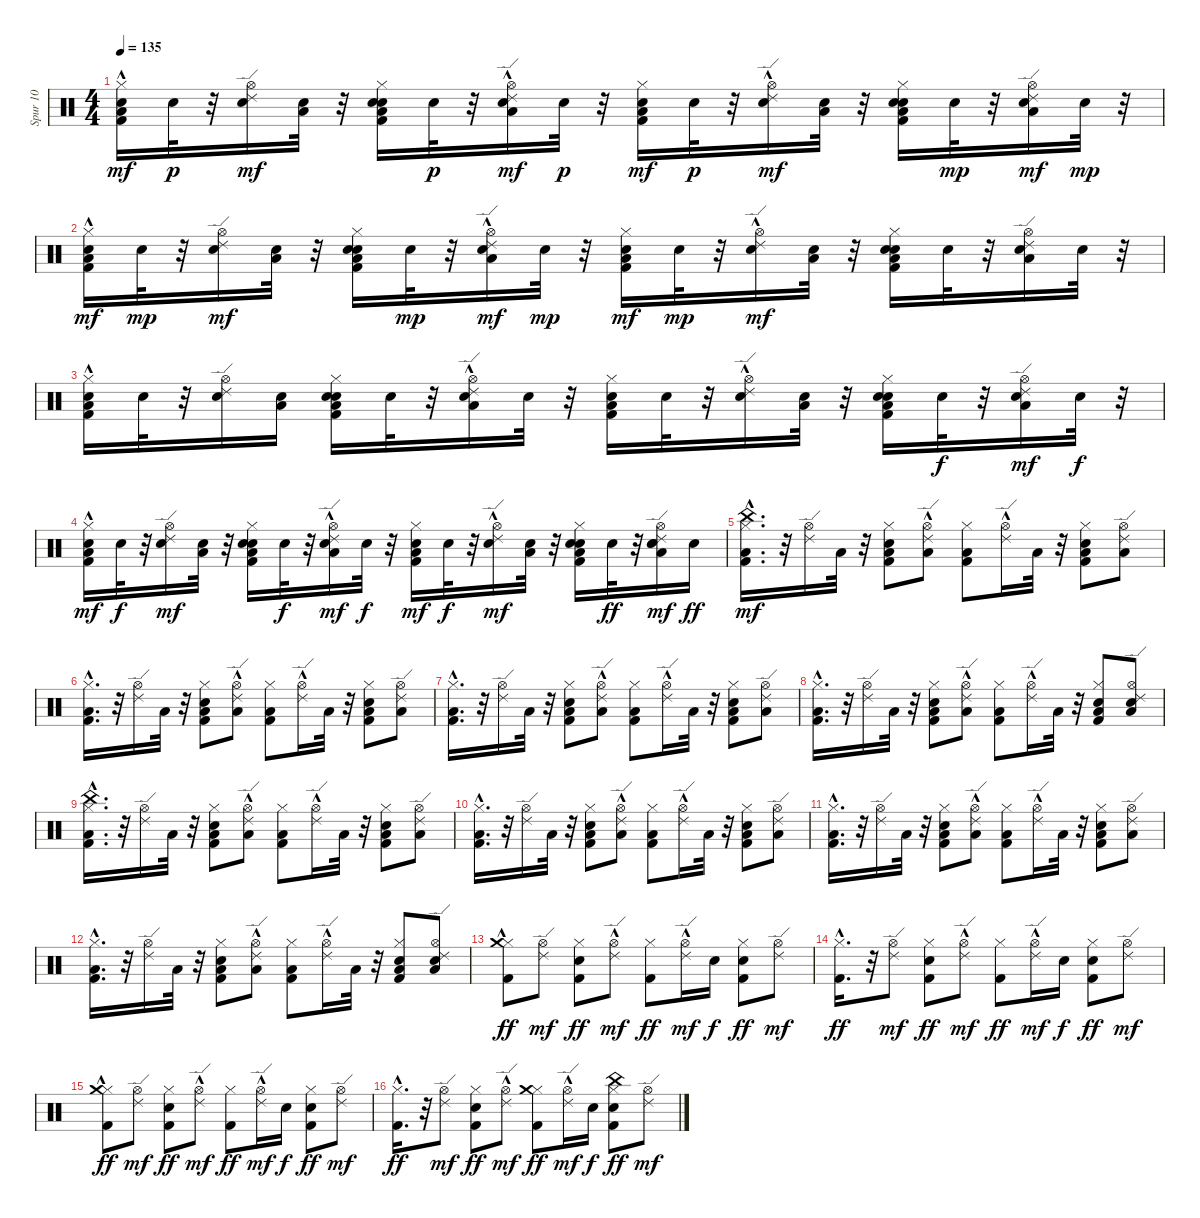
\track ("Spur 10" "Spur 10") {instrument percussion}
\staff {score}
\articulation defaults
\ts (4 4)
\tempo 135
\clef neutral
\ks c
("Snare (hit) 2" "Kick (hit) 2" "Low Tom (hit)" "Hi-Hat (closed)"{hac}).16{dy mf} "Snare (hit) 2".32{dy p} r.32 ("Snare (hit) 2" "Ride (edge) 2" "Hi-Hat (open)").16{dy mf} ("Snare (hit) 2" "Low Tom (hit)").32 r.32 ("Snare (hit) 2" "Kick (hit) 2" "Hand Clap (hit)" "Low Tom (hit)" "Hi-Hat (closed)").16 "Snare (hit) 2".32{dy p} r.32 ("Snare (hit) 2" "Low Tom (hit)" "Hi-Hat (open)" "Ride (edge) 2"{hac}).16{dy mf} "Snare (hit) 2".32{dy p} r.32 ("Snare (hit) 2" "Kick (hit) 2" "Low Tom (hit)" "Hi-Hat (closed)").16{dy mf} "Snare (hit) 2".32{dy p} r.32 ("Snare (hit) 2" "Hi-Hat (open)" "Ride (edge) 2"{hac}).16{dy mf} ("Snare (hit) 2" "Low Tom (hit)").32 r.32 ("Snare (hit) 2" "Kick (hit) 2" "Hand Clap (hit)" "Low Tom (hit)" "Hi-Hat (closed)").16 "Snare (hit) 2".32{dy mp} r.32 ("Snare (hit) 2" "Low Tom (hit)" "Hi-Hat (open)" "Ride (edge) 2").16{dy mf} "Snare (hit) 2".32{dy mp} r.32 |
("Snare (hit) 2" "Kick (hit) 2" "Low Tom (hit)" "Hi-Hat (closed)"{hac}).16{dy mf} "Snare (hit) 2".32{dy mp} r.32 ("Snare (hit) 2" "Ride (edge) 2" "Hi-Hat (open)").16{dy mf} ("Snare (hit) 2" "Low Tom (hit)").32 r.32 ("Snare (hit) 2" "Kick (hit) 2" "Hand Clap (hit)" "Low Tom (hit)" "Hi-Hat (closed)").16 "Snare (hit) 2".32{dy mp} r.32 ("Snare (hit) 2" "Low Tom (hit)" "Hi-Hat (open)" "Ride (edge) 2"{hac}).16{dy mf} "Snare (hit) 2".32{dy mp} r.32 ("Snare (hit) 2" "Kick (hit) 2" "Low Tom (hit)" "Hi-Hat (closed)").16{dy mf} "Snare (hit) 2".32{dy mp} r.32 ("Snare (hit) 2" "Hi-Hat (open)" "Ride (edge) 2"{hac}).16{dy mf} ("Snare (hit) 2" "Low Tom (hit)").32 r.32 ("Snare (hit) 2" "Kick (hit) 2" "Hand Clap (hit)" "Low Tom (hit)" "Hi-Hat (closed)").16 "Snare (hit) 2".32 r.32 ("Snare (hit) 2" "Low Tom (hit)" "Hi-Hat (open)" "Ride (edge) 2").16 "Snare (hit) 2".32 r.32 |
("Snare (hit) 2" "Kick (hit) 2" "Low Tom (hit)" "Hi-Hat (closed)"{hac}).16 "Snare (hit) 2".32 r.32 ("Snare (hit) 2" "Ride (edge) 2" "Hi-Hat (open)").16 ("Snare (hit) 2" "Low Tom (hit)").16 ("Snare (hit) 2" "Kick (hit) 2" "Hand Clap (hit)" "Low Tom (hit)" "Hi-Hat (closed)").16 "Snare (hit) 2".32 r.32 ("Snare (hit) 2" "Low Tom (hit)" "Hi-Hat (open)" "Ride (edge) 2"{hac}).16 "Snare (hit) 2".32 r.32 ("Snare (hit) 2" "Kick (hit) 2" "Low Tom (hit)" "Hi-Hat (closed)").16 "Snare (hit) 2".32 r.32 ("Snare (hit) 2" "Hi-Hat (open)" "Ride (edge) 2"{hac}).16 ("Snare (hit) 2" "Low Tom (hit)").32 r.32 ("Snare (hit) 2" "Kick (hit) 2" "Hand Clap (hit)" "Low Tom (hit)" "Hi-Hat (closed)").16 "Snare (hit) 2".32{dy f} r.32 ("Snare (hit) 2" "Low Tom (hit)" "Hi-Hat (open)" "Ride (edge) 2").16{dy mf} "Snare (hit) 2".32{dy f} r.32 |
("Snare (hit) 2" "Kick (hit) 2" "Low Tom (hit)" "Hi-Hat (closed)"{hac}).16{dy mf} "Snare (hit) 2".32{dy f} r.32 ("Snare (hit) 2" "Ride (edge) 2" "Hi-Hat (open)").16{dy mf} ("Snare (hit) 2" "Low Tom (hit)").32 r.32 ("Snare (hit) 2" "Kick (hit) 2" "Hand Clap (hit)" "Low Tom (hit)" "Hi-Hat (closed)").16 "Snare (hit) 2".32{dy f} r.32 ("Snare (hit) 2" "Low Tom (hit)" "Hi-Hat (open)" "Ride (edge) 2"{hac}).16{dy mf} "Snare (hit) 2".32{dy f} r.32 ("Snare (hit) 2" "Kick (hit) 2" "Low Tom (hit)" "Hi-Hat (closed)").16{dy mf} "Snare (hit) 2".32{dy f} r.32 ("Snare (hit) 2" "Hi-Hat (open)" "Ride (edge) 2"{hac}).16{dy mf} ("Snare (hit) 2" "Low Tom (hit)").32 r.32 ("Snare (hit) 2" "Kick (hit) 2" "Hand Clap (hit)" "Low Tom (hit)" "Hi-Hat (closed)").16 "Snare (hit) 2".32{dy ff} r.32 ("Snare (hit) 2" "Hand Clap (hit)" "Low Tom (hit)" "Hi-Hat (open)" "Ride (edge) 2").16{dy mf} "Snare (hit) 2".16{dy ff} |
("Kick (hit) 2" "Low Tom (hit)" "Hi-Hat (closed)"{hac} "China (hit)").16{d dy mf} r.32 ("Ride (edge) 2" "Hi-Hat (open)").16 "Low Tom (hit)".32 r.32 ("Kick (hit) 2" "Hand Clap (hit)" "Low Tom (hit)" "Hi-Hat (closed)").8 ("Low Tom (hit)" "Hi-Hat (open)" "Ride (edge) 2"{hac}).8 ("Kick (hit) 2" "Low Tom (hit)" "Hi-Hat (closed)").8 ("Hi-Hat (open)" "Ride (edge) 2"{hac}).16 "Low Tom (hit)".32 r.32 ("Kick (hit) 2" "Hand Clap (hit)" "Low Tom (hit)" "Hi-Hat (closed)").8 ("Low Tom (hit)" "Hi-Hat (open)" "Ride (edge) 2").8 |
("Kick (hit) 2" "Low Tom (hit)" "Hi-Hat (closed)"{hac}).16{d} r.32 ("Ride (edge) 2" "Hi-Hat (open)").16 "Low Tom (hit)".32 r.32 ("Kick (hit) 2" "Hand Clap (hit)" "Low Tom (hit)" "Hi-Hat (closed)").8 ("Low Tom (hit)" "Hi-Hat (open)" "Ride (edge) 2"{hac}).8 ("Kick (hit) 2" "Low Tom (hit)" "Hi-Hat (closed)").8 ("Hi-Hat (open)" "Ride (edge) 2"{hac}).16 "Low Tom (hit)".32 r.32 ("Kick (hit) 2" "Hand Clap (hit)" "Low Tom (hit)" "Hi-Hat (closed)").8 ("Low Tom (hit)" "Hi-Hat (open)" "Ride (edge) 2").8 |
("Kick (hit) 2" "Low Tom (hit)" "Hi-Hat (closed)"{hac}).16{d} r.32 ("Ride (edge) 2" "Hi-Hat (open)").16 "Low Tom (hit)".32 r.32 ("Kick (hit) 2" "Hand Clap (hit)" "Low Tom (hit)" "Hi-Hat (closed)").8 ("Low Tom (hit)" "Hi-Hat (open)" "Ride (edge) 2"{hac}).8 ("Kick (hit) 2" "Low Tom (hit)" "Hi-Hat (closed)").8 ("Hi-Hat (open)" "Ride (edge) 2"{hac}).16 "Low Tom (hit)".32 r.32 ("Kick (hit) 2" "Hand Clap (hit)" "Low Tom (hit)" "Hi-Hat (closed)").8 ("Low Tom (hit)" "Hi-Hat (open)" "Ride (edge) 2").8 |
("Kick (hit) 2" "Low Tom (hit)" "Hi-Hat (closed)"{hac}).16{d} r.32 ("Ride (edge) 2" "Hi-Hat (open)").16 "Low Tom (hit)".32 r.32 ("Kick (hit) 2" "Hand Clap (hit)" "Low Tom (hit)" "Hi-Hat (closed)").8 ("Low Tom (hit)" "Hi-Hat (open)" "Ride (edge) 2"{hac}).8 ("Kick (hit) 2" "Low Tom (hit)" "Hi-Hat (closed)").8 ("Hi-Hat (open)" "Ride (edge) 2"{hac}).16 "Low Tom (hit)".32 r.32 ("Kick (hit) 2" "Hand Clap (hit)" "Low Tom (hit)" "Hi-Hat (closed)").8 ("Hand Clap (hit)" "Low Tom (hit)" "Hi-Hat (open)" "Ride (edge) 2").8 |
("Kick (hit) 2" "Low Tom (hit)" "Hi-Hat (closed)"{hac} "China (hit)").16{d} r.32 ("Ride (edge) 2" "Hi-Hat (open)").16 "Low Tom (hit)".32 r.32 ("Kick (hit) 2" "Hand Clap (hit)" "Low Tom (hit)" "Hi-Hat (closed)").8 ("Low Tom (hit)" "Hi-Hat (open)" "Ride (edge) 2"{hac}).8 ("Kick (hit) 2" "Low Tom (hit)" "Hi-Hat (closed)").8 ("Hi-Hat (open)" "Ride (edge) 2"{hac}).16 "Low Tom (hit)".32 r.32 ("Kick (hit) 2" "Hand Clap (hit)" "Low Tom (hit)" "Hi-Hat (closed)").8 ("Low Tom (hit)" "Hi-Hat (open)" "Ride (edge) 2").8 |
("Kick (hit) 2" "Low Tom (hit)" "Hi-Hat (closed)"{hac}).16{d} r.32 ("Ride (edge) 2" "Hi-Hat (open)").16 "Low Tom (hit)".32 r.32 ("Kick (hit) 2" "Hand Clap (hit)" "Low Tom (hit)" "Hi-Hat (closed)").8 ("Low Tom (hit)" "Hi-Hat (open)" "Ride (edge) 2"{hac}).8 ("Kick (hit) 2" "Low Tom (hit)" "Hi-Hat (closed)").8 ("Hi-Hat (open)" "Ride (edge) 2"{hac}).16 "Low Tom (hit)".32 r.32 ("Kick (hit) 2" "Hand Clap (hit)" "Low Tom (hit)" "Hi-Hat (closed)").8 ("Low Tom (hit)" "Hi-Hat (open)" "Ride (edge) 2").8 |
("Kick (hit) 2" "Low Tom (hit)" "Hi-Hat (closed)"{hac}).16{d} r.32 ("Ride (edge) 2" "Hi-Hat (open)").16 "Low Tom (hit)".32 r.32 ("Kick (hit) 2" "Hand Clap (hit)" "Low Tom (hit)" "Hi-Hat (closed)").8 ("Low Tom (hit)" "Hi-Hat (open)" "Ride (edge) 2"{hac}).8 ("Kick (hit) 2" "Low Tom (hit)" "Hi-Hat (closed)").8 ("Hi-Hat (open)" "Ride (edge) 2"{hac}).16 "Low Tom (hit)".32 r.32 ("Kick (hit) 2" "Hand Clap (hit)" "Low Tom (hit)" "Hi-Hat (closed)").8 ("Low Tom (hit)" "Hi-Hat (open)" "Ride (edge) 2").8 |
("Kick (hit) 2" "Low Tom (hit)" "Hi-Hat (closed)"{hac}).16{d} r.32 ("Ride (edge) 2" "Hi-Hat (open)").16 "Low Tom (hit)".32 r.32 ("Kick (hit) 2" "Hand Clap (hit)" "Low Tom (hit)" "Hi-Hat (closed)").8 ("Low Tom (hit)" "Hi-Hat (open)" "Ride (edge) 2"{hac}).8 ("Kick (hit) 2" "Low Tom (hit)" "Hi-Hat (closed)").8 ("Hi-Hat (open)" "Ride (edge) 2"{hac}).16 "Low Tom (hit)".32 r.32 ("Kick (hit) 2" "Hand Clap (hit)" "Low Tom (hit)" "Hi-Hat (closed)").8 ("Hand Clap (hit)" "Low Tom (hit)" "Hi-Hat (open)" "Ride (edge) 2").8 |
("Kick (hit) 2" "Hi-Hat (closed)"{hac} "Crash medium (hit)").8{dy ff} ("Ride (edge) 2" "Hi-Hat (open)").8{dy mf} ("Kick (hit) 2" "Hand Clap (hit)" "Hi-Hat (closed)").8{dy ff} ("Hi-Hat (open)" "Ride (edge) 2"{hac}).8{dy mf} ("Kick (hit) 2" "Hi-Hat (closed)").8{dy ff} ("Hi-Hat (open)" "Ride (edge) 2"{hac}).16{dy mf} "Hand Clap (hit)".16{dy f} ("Kick (hit) 2" "Hand Clap (hit)" "Hi-Hat (closed)").8{dy ff} ("Hi-Hat (open)" "Ride (edge) 2").8{dy mf} |
("Kick (hit) 2" "Hi-Hat (closed)"{hac}).16{d dy ff} r.32 ("Ride (edge) 2" "Hi-Hat (open)").8{dy mf} ("Kick (hit) 2" "Hand Clap (hit)" "Hi-Hat (closed)").8{dy ff} ("Hi-Hat (open)" "Ride (edge) 2"{hac}).8{dy mf} ("Kick (hit) 2" "Hi-Hat (closed)").8{dy ff} ("Hi-Hat (open)" "Ride (edge) 2"{hac}).16{dy mf} "Hand Clap (hit)".16{dy f} ("Kick (hit) 2" "Hand Clap (hit)" "Hi-Hat (closed)").8{dy ff} ("Hi-Hat (open)" "Ride (edge) 2").8{dy mf} |
("Kick (hit) 2" "Hi-Hat (closed)"{hac} "Crash medium (hit)").8{dy ff} ("Ride (edge) 2" "Hi-Hat (open)").8{dy mf} ("Kick (hit) 2" "Hand Clap (hit)" "Hi-Hat (closed)").8{dy ff} ("Hi-Hat (open)" "Ride (edge) 2"{hac}).8{dy mf} ("Kick (hit) 2" "Hi-Hat (closed)").8{dy ff} ("Hi-Hat (open)" "Ride (edge) 2"{hac}).16{dy mf} "Hand Clap (hit)".16{dy f} ("Kick (hit) 2" "Hand Clap (hit)" "Hi-Hat (closed)").8{dy ff} ("Hi-Hat (open)" "Ride (edge) 2").8{dy mf} |
("Kick (hit) 2" "Hi-Hat (closed)"{hac}).16{d dy ff} r.32 ("Ride (edge) 2" "Hi-Hat (open)").8{dy mf} ("Kick (hit) 2" "Hand Clap (hit)" "Hi-Hat (closed)").8{dy ff} ("Hi-Hat (open)" "Ride (edge) 2"{hac}).8{dy mf} ("Kick (hit) 2" "Hi-Hat (closed)" "Crash medium (hit)").8{dy ff} ("Hi-Hat (open)" "Ride (edge) 2"{hac}).16{dy mf} "Hand Clap (hit)".16{dy f} ("Kick (hit) 2" "Hand Clap (hit)" "China (hit)" "Hi-Hat (closed)").8{dy ff} ("Hi-Hat (open)" "Ride (edge) 2").8{dy mf}
